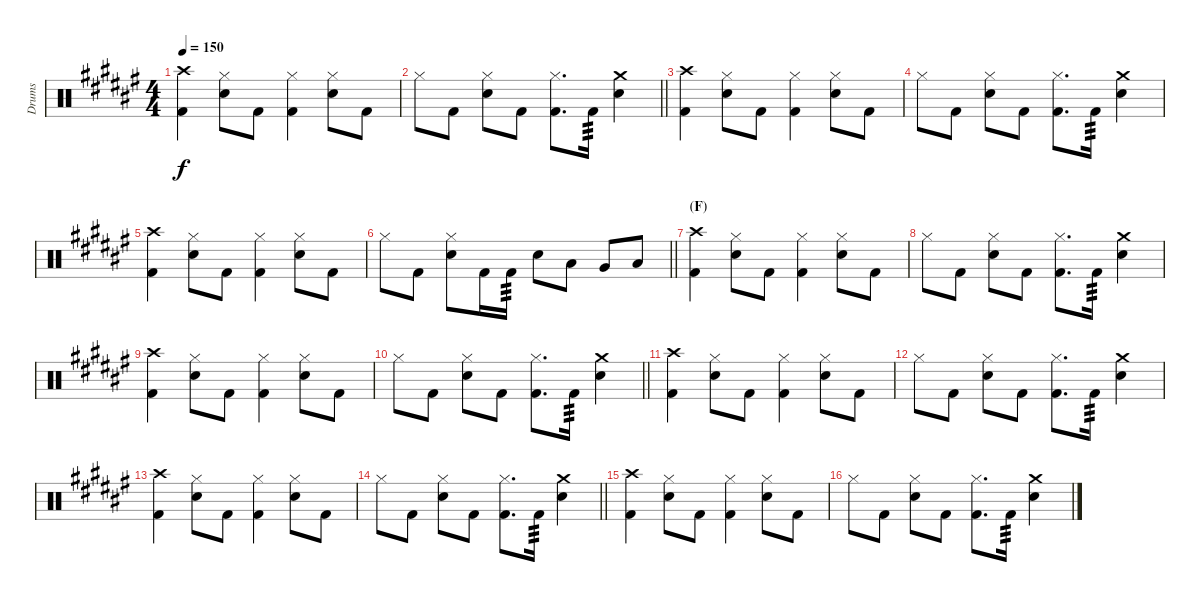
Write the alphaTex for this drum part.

\track ("Drums" "Drums") {instrument percussion}
\staff {score}
\articulation defaults
\ts (4 4)
\tempo 150
\clef neutral
\ks f#
("Crash high (hit)" "Kick (hit) 2").4{dy f} ("Electric Snare (hit)" "Hi-Hat (closed)").8 "Kick (hit) 2".8 ("Hi-Hat (closed)" "Kick (hit) 2").4 ("Electric Snare (hit)" "Hi-Hat (closed)").8 "Kick (hit) 2".8 |
\barLineRight lightlight "Hi-Hat (closed)".8 "Kick (hit) 2".8
("Electric Snare (hit)" "Hi-Hat (closed)").8 "Kick (hit) 2".8 ("Hi-Hat (closed)" "Kick (hit) 2").8{d} "Kick (hit) 2".16{tp 3} ("Crash medium (hit)" "Electric Snare (hit)").4 |
("Crash high (hit)" "Kick (hit) 2").4 ("Electric Snare (hit)" "Hi-Hat (closed)").8 "Kick (hit) 2".8 ("Hi-Hat (closed)" "Kick (hit) 2").4 ("Electric Snare (hit)" "Hi-Hat (closed)").8 "Kick (hit) 2".8 |
"Hi-Hat (closed)".8 "Kick (hit) 2".8 ("Electric Snare (hit)" "Hi-Hat (closed)").8 "Kick (hit) 2".8 ("Hi-Hat (closed)" "Kick (hit) 2").8{d} "Kick (hit) 2".16{tp 3} ("Crash medium (hit)" "Electric Snare (hit)").4 |
("Crash high (hit)" "Kick (hit) 2").4 ("Electric Snare (hit)" "Hi-Hat (closed)").8 "Kick (hit) 2".8 ("Hi-Hat (closed)" "Kick (hit) 2").4 ("Electric Snare (hit)" "Hi-Hat (closed)").8 "Kick (hit) 2".8 |
\barLineRight lightlight "Hi-Hat (closed)".8 "Kick (hit) 2".8
("Electric Snare (hit)" "Hi-Hat (closed)").8 "Kick (hit) 2".16 "Kick (hit) 2".16{tp 3} "Electric Snare (hit)".8 "Low Floor Tom (hit)".8 "Very Low Tom (hit)".8 "Low Floor Tom (hit)".8 |
\section ("" "(F)")
("Crash high (hit)" "Kick (hit) 2").4 ("Electric Snare (hit)" "Hi-Hat (closed)").8 "Kick (hit) 2".8 ("Hi-Hat (closed)" "Kick (hit) 2").4 ("Electric Snare (hit)" "Hi-Hat (closed)").8 "Kick (hit) 2".8 |
"Hi-Hat (closed)".8 "Kick (hit) 2".8 ("Electric Snare (hit)" "Hi-Hat (closed)").8 "Kick (hit) 2".8 ("Hi-Hat (closed)" "Kick (hit) 2").8{d} "Kick (hit) 2".16{tp 3} ("Crash medium (hit)" "Electric Snare (hit)").4 |
("Crash high (hit)" "Kick (hit) 2").4 ("Electric Snare (hit)" "Hi-Hat (closed)").8 "Kick (hit) 2".8 ("Hi-Hat (closed)" "Kick (hit) 2").4 ("Electric Snare (hit)" "Hi-Hat (closed)").8 "Kick (hit) 2".8 |
\barLineRight lightlight "Hi-Hat (closed)".8 "Kick (hit) 2".8
("Electric Snare (hit)" "Hi-Hat (closed)").8 "Kick (hit) 2".8 ("Hi-Hat (closed)" "Kick (hit) 2").8{d} "Kick (hit) 2".16{tp 3} ("Crash medium (hit)" "Electric Snare (hit)").4 |
("Crash high (hit)" "Kick (hit) 2").4 ("Electric Snare (hit)" "Hi-Hat (closed)").8 "Kick (hit) 2".8 ("Hi-Hat (closed)" "Kick (hit) 2").4 ("Electric Snare (hit)" "Hi-Hat (closed)").8 "Kick (hit) 2".8 |
"Hi-Hat (closed)".8 "Kick (hit) 2".8 ("Electric Snare (hit)" "Hi-Hat (closed)").8 "Kick (hit) 2".8 ("Hi-Hat (closed)" "Kick (hit) 2").8{d} "Kick (hit) 2".16{tp 3} ("Crash medium (hit)" "Electric Snare (hit)").4 |
("Crash high (hit)" "Kick (hit) 2").4 ("Electric Snare (hit)" "Hi-Hat (closed)").8 "Kick (hit) 2".8 ("Hi-Hat (closed)" "Kick (hit) 2").4 ("Electric Snare (hit)" "Hi-Hat (closed)").8 "Kick (hit) 2".8 |
\barLineRight lightlight "Hi-Hat (closed)".8 "Kick (hit) 2".8
("Electric Snare (hit)" "Hi-Hat (closed)").8 "Kick (hit) 2".8 ("Hi-Hat (closed)" "Kick (hit) 2").8{d} "Kick (hit) 2".16{tp 3} ("Crash medium (hit)" "Electric Snare (hit)").4 |
("Crash high (hit)" "Kick (hit) 2").4 ("Electric Snare (hit)" "Hi-Hat (closed)").8 "Kick (hit) 2".8 ("Hi-Hat (closed)" "Kick (hit) 2").4 ("Electric Snare (hit)" "Hi-Hat (closed)").8 "Kick (hit) 2".8 |
"Hi-Hat (closed)".8 "Kick (hit) 2".8 ("Electric Snare (hit)" "Hi-Hat (closed)").8 "Kick (hit) 2".8 ("Hi-Hat (closed)" "Kick (hit) 2").8{d} "Kick (hit) 2".16{tp 3} ("Crash medium (hit)" "Electric Snare (hit)").4
